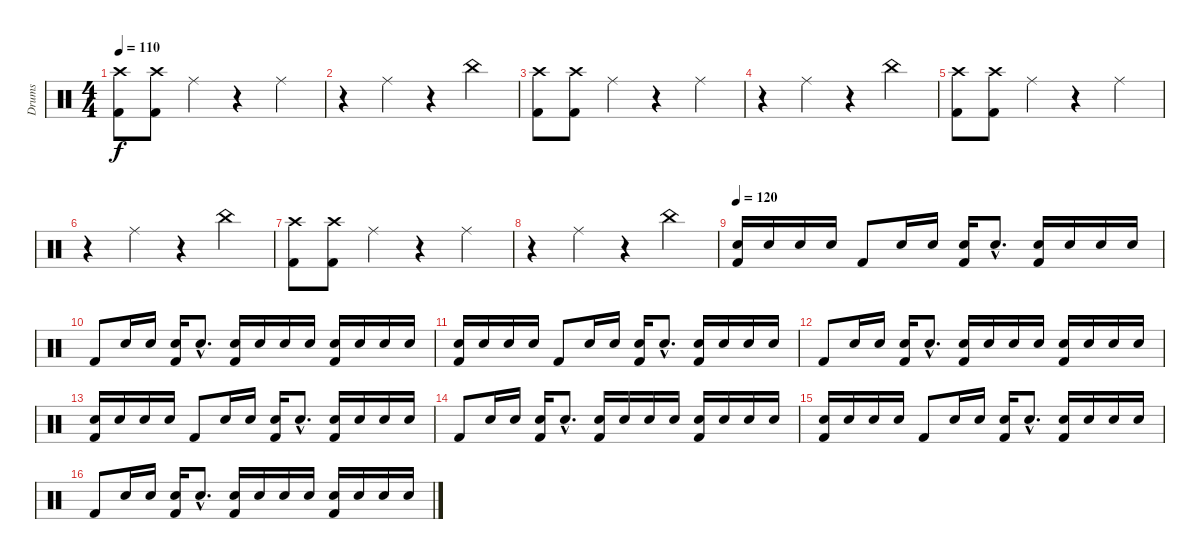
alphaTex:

\track ("Drums" "Drums") {instrument percussion}
\staff {score}
\articulation defaults
\ts (4 4)
\tempo 110
\clef neutral
\ks c
("Crash high (hit)" "Kick (hit) 2").8{dy f} ("Crash high (hit)" "Kick (hit) 2").8 "Ride (middle)".4 r.4 "Ride (middle)".4 |
r.4 "Ride (middle)".4 r.4 "China (hit)".4 |
("Crash high (hit)" "Kick (hit) 2").8 ("Crash high (hit)" "Kick (hit) 2").8 "Ride (middle)".4 r.4 "Ride (middle)".4 |
r.4 "Ride (middle)".4 r.4 "China (hit)".4 |
("Crash high (hit)" "Kick (hit) 2").8 ("Crash high (hit)" "Kick (hit) 2").8 "Ride (middle)".4 r.4 "Ride (middle)".4 |
r.4 "Ride (middle)".4 r.4 "China (hit)".4 |
("Crash high (hit)" "Kick (hit) 2").8 ("Crash high (hit)" "Kick (hit) 2").8 "Ride (middle)".4 r.4 "Ride (middle)".4 |
r.4 "Ride (middle)".4 r.4 "China (hit)".4 |
\tempo 120
("Kick (hit) 2" "Snare (hit) 2").16 "Snare (hit) 2".16 "Snare (hit) 2".16 "Snare (hit) 2".16 "Kick (hit) 2".8 "Snare (hit) 2".16 "Snare (hit) 2".16 ("Kick (hit) 2" "Snare (hit) 2").16 "Snare (hit) 2"{hac}.8{d} ("Kick (hit) 2" "Snare (hit) 2").16 "Snare (hit) 2".16 "Snare (hit) 2".16 "Snare (hit) 2".16 |
"Kick (hit) 2".8 "Snare (hit) 2".16 "Snare (hit) 2".16 ("Kick (hit) 2" "Snare (hit) 2").16 "Snare (hit) 2"{hac}.8{d} ("Kick (hit) 2" "Snare (hit) 2").16 "Snare (hit) 2".16 "Snare (hit) 2".16 "Snare (hit) 2".16 ("Kick (hit) 2" "Snare (hit) 2").16 "Snare (hit) 2".16 "Snare (hit) 2".16 "Snare (hit) 2".16 |
("Kick (hit) 2" "Snare (hit) 2").16 "Snare (hit) 2".16 "Snare (hit) 2".16 "Snare (hit) 2".16 "Kick (hit) 2".8 "Snare (hit) 2".16 "Snare (hit) 2".16 ("Kick (hit) 2" "Snare (hit) 2").16 "Snare (hit) 2"{hac}.8{d} ("Kick (hit) 2" "Snare (hit) 2").16 "Snare (hit) 2".16 "Snare (hit) 2".16 "Snare (hit) 2".16 |
"Kick (hit) 2".8 "Snare (hit) 2".16 "Snare (hit) 2".16 ("Kick (hit) 2" "Snare (hit) 2").16 "Snare (hit) 2"{hac}.8{d} ("Kick (hit) 2" "Snare (hit) 2").16 "Snare (hit) 2".16 "Snare (hit) 2".16 "Snare (hit) 2".16 ("Kick (hit) 2" "Snare (hit) 2").16 "Snare (hit) 2".16 "Snare (hit) 2".16 "Snare (hit) 2".16 |
("Kick (hit) 2" "Snare (hit) 2").16 "Snare (hit) 2".16 "Snare (hit) 2".16 "Snare (hit) 2".16 "Kick (hit) 2".8 "Snare (hit) 2".16 "Snare (hit) 2".16 ("Kick (hit) 2" "Snare (hit) 2").16 "Snare (hit) 2"{hac}.8{d} ("Kick (hit) 2" "Snare (hit) 2").16 "Snare (hit) 2".16 "Snare (hit) 2".16 "Snare (hit) 2".16 |
"Kick (hit) 2".8 "Snare (hit) 2".16 "Snare (hit) 2".16 ("Kick (hit) 2" "Snare (hit) 2").16 "Snare (hit) 2"{hac}.8{d} ("Kick (hit) 2" "Snare (hit) 2").16 "Snare (hit) 2".16 "Snare (hit) 2".16 "Snare (hit) 2".16 ("Kick (hit) 2" "Snare (hit) 2").16 "Snare (hit) 2".16 "Snare (hit) 2".16 "Snare (hit) 2".16 |
("Kick (hit) 2" "Snare (hit) 2").16 "Snare (hit) 2".16 "Snare (hit) 2".16 "Snare (hit) 2".16 "Kick (hit) 2".8 "Snare (hit) 2".16 "Snare (hit) 2".16 ("Kick (hit) 2" "Snare (hit) 2").16 "Snare (hit) 2"{hac}.8{d} ("Kick (hit) 2" "Snare (hit) 2").16 "Snare (hit) 2".16 "Snare (hit) 2".16 "Snare (hit) 2".16 |
"Kick (hit) 2".8 "Snare (hit) 2".16 "Snare (hit) 2".16 ("Kick (hit) 2" "Snare (hit) 2").16 "Snare (hit) 2"{hac}.8{d} ("Kick (hit) 2" "Snare (hit) 2").16 "Snare (hit) 2".16 "Snare (hit) 2".16 "Snare (hit) 2".16 ("Kick (hit) 2" "Snare (hit) 2").16 "Snare (hit) 2".16 "Snare (hit) 2".16 "Snare (hit) 2".16
